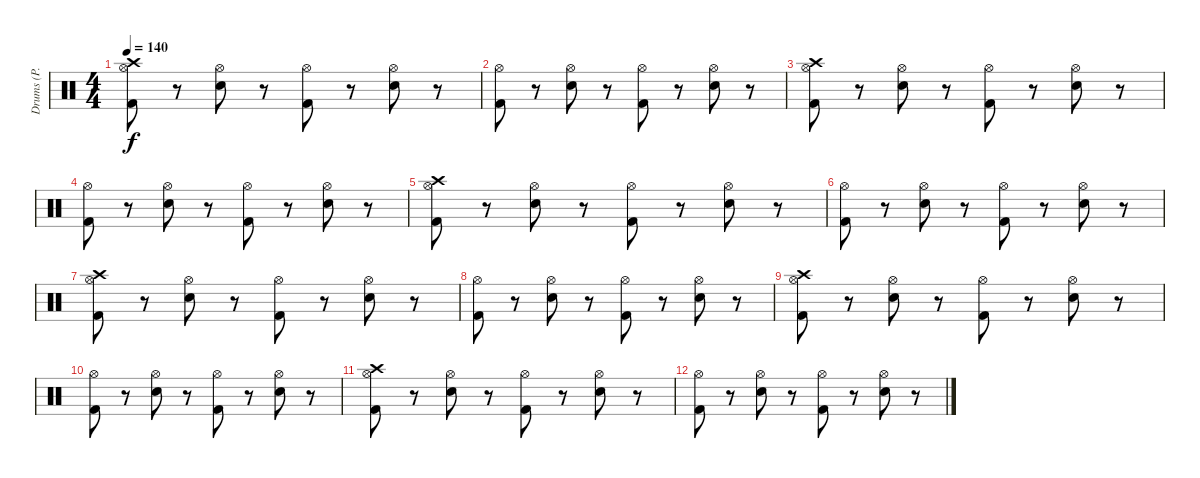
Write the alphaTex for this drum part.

\track ("Drums (P. Rudd)" "Drums (P. ") {instrument percussion}
\staff {score}
\articulation defaults
\ts (4 4)
\tempo 140
\clef neutral
\ks c
("Hi-Hat (open)" "Crash high (hit)" "Kick (hit) 2").8{dy f} r.8 ("Hi-Hat (open)" "Snare (hit) 2").8 r.8 ("Hi-Hat (open)" "Kick (hit) 2").8 r.8 ("Hi-Hat (open)" "Snare (hit) 2").8 r.8 |
("Hi-Hat (open)" "Kick (hit) 2").8 r.8 ("Hi-Hat (open)" "Snare (hit) 2").8 r.8 ("Hi-Hat (open)" "Kick (hit) 2").8 r.8 ("Hi-Hat (open)" "Snare (hit) 2").8 r.8 |
("Hi-Hat (open)" "Crash high (hit)" "Kick (hit) 2").8 r.8 ("Hi-Hat (open)" "Snare (hit) 2").8 r.8 ("Hi-Hat (open)" "Kick (hit) 2").8 r.8 ("Hi-Hat (open)" "Snare (hit) 2").8 r.8 |
("Hi-Hat (open)" "Kick (hit) 2").8 r.8 ("Hi-Hat (open)" "Snare (hit) 2").8 r.8 ("Hi-Hat (open)" "Kick (hit) 2").8 r.8 ("Hi-Hat (open)" "Snare (hit) 2").8 r.8 |
("Hi-Hat (open)" "Crash high (hit)" "Kick (hit) 2").8 r.8 ("Hi-Hat (open)" "Snare (hit) 2").8 r.8 ("Hi-Hat (open)" "Kick (hit) 2").8 r.8 ("Hi-Hat (open)" "Snare (hit) 2").8 r.8 |
("Hi-Hat (open)" "Kick (hit) 2").8 r.8 ("Hi-Hat (open)" "Snare (hit) 2").8 r.8 ("Hi-Hat (open)" "Kick (hit) 2").8 r.8 ("Hi-Hat (open)" "Snare (hit) 2").8 r.8 |
("Hi-Hat (open)" "Crash high (hit)" "Kick (hit) 2").8 r.8 ("Hi-Hat (open)" "Snare (hit) 2").8 r.8 ("Hi-Hat (open)" "Kick (hit) 2").8 r.8 ("Hi-Hat (open)" "Snare (hit) 2").8 r.8 |
("Hi-Hat (open)" "Kick (hit) 2").8 r.8 ("Hi-Hat (open)" "Snare (hit) 2").8 r.8 ("Hi-Hat (open)" "Kick (hit) 2").8 r.8 ("Hi-Hat (open)" "Snare (hit) 2").8 r.8 |
("Hi-Hat (open)" "Crash high (hit)" "Kick (hit) 2").8 r.8 ("Hi-Hat (open)" "Snare (hit) 2").8 r.8 ("Hi-Hat (open)" "Kick (hit) 2").8 r.8 ("Hi-Hat (open)" "Snare (hit) 2").8 r.8 |
("Hi-Hat (open)" "Kick (hit) 2").8 r.8 ("Hi-Hat (open)" "Snare (hit) 2").8 r.8 ("Hi-Hat (open)" "Kick (hit) 2").8 r.8 ("Hi-Hat (open)" "Snare (hit) 2").8 r.8 |
("Hi-Hat (open)" "Crash high (hit)" "Kick (hit) 2").8 r.8 ("Hi-Hat (open)" "Snare (hit) 2").8 r.8 ("Hi-Hat (open)" "Kick (hit) 2").8 r.8 ("Hi-Hat (open)" "Snare (hit) 2").8 r.8 |
("Hi-Hat (open)" "Kick (hit) 2").8 r.8 ("Hi-Hat (open)" "Snare (hit) 2").8 r.8 ("Hi-Hat (open)" "Kick (hit) 2").8 r.8 ("Hi-Hat (open)" "Snare (hit) 2").8 r.8
